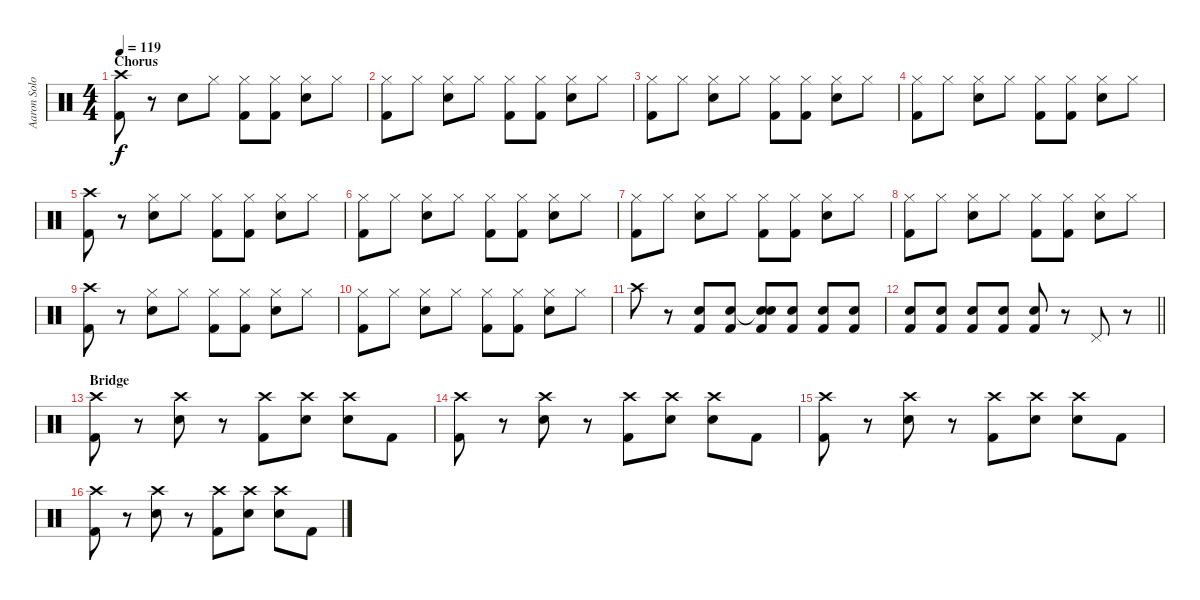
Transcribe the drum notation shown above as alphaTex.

\track ("Aaron Solowoniuk (Drums)" "Aaron Solo") {instrument percussion}
\staff {score}
\articulation defaults
\ts (4 4)
\section ("" "Chorus")
\tempo 119
\clef neutral
\ks c
("Crash high (hit)" "Kick (hit) 2").8{dy f} r.8 "Electric Snare (hit)".8 "Hi-Hat (closed)".8 ("Hi-Hat (closed)" "Kick (hit) 2").8 ("Hi-Hat (closed)" "Kick (hit) 2").8 ("Hi-Hat (closed)" "Electric Snare (hit)").8 "Hi-Hat (closed)".8 |
("Hi-Hat (closed)" "Kick (hit) 2").8 "Hi-Hat (closed)".8 ("Hi-Hat (closed)" "Electric Snare (hit)").8 "Hi-Hat (closed)".8 ("Hi-Hat (closed)" "Kick (hit) 2").8 ("Hi-Hat (closed)" "Kick (hit) 2").8 ("Hi-Hat (closed)" "Electric Snare (hit)").8 "Hi-Hat (closed)".8 |
("Hi-Hat (closed)" "Kick (hit) 2").8 "Hi-Hat (closed)".8 ("Hi-Hat (closed)" "Electric Snare (hit)").8 "Hi-Hat (closed)".8 ("Hi-Hat (closed)" "Kick (hit) 2").8 ("Hi-Hat (closed)" "Kick (hit) 2").8 ("Hi-Hat (closed)" "Electric Snare (hit)").8 "Hi-Hat (closed)".8 |
("Hi-Hat (closed)" "Kick (hit) 2").8 "Hi-Hat (closed)".8 ("Hi-Hat (closed)" "Electric Snare (hit)").8 "Hi-Hat (closed)".8 ("Hi-Hat (closed)" "Kick (hit) 2").8 ("Hi-Hat (closed)" "Kick (hit) 2").8 ("Hi-Hat (closed)" "Electric Snare (hit)").8 "Hi-Hat (closed)".8 |
("Crash high (hit)" "Kick (hit) 2").8 r.8 ("Hi-Hat (closed)" "Electric Snare (hit)").8 "Hi-Hat (closed)".8 ("Hi-Hat (closed)" "Kick (hit) 2").8 ("Hi-Hat (closed)" "Kick (hit) 2").8 ("Hi-Hat (closed)" "Electric Snare (hit)").8 "Hi-Hat (closed)".8 |
("Hi-Hat (closed)" "Kick (hit) 2").8 "Hi-Hat (closed)".8 ("Hi-Hat (closed)" "Electric Snare (hit)").8 "Hi-Hat (closed)".8 ("Hi-Hat (closed)" "Kick (hit) 2").8 ("Hi-Hat (closed)" "Kick (hit) 2").8 ("Hi-Hat (closed)" "Electric Snare (hit)").8 "Hi-Hat (closed)".8 |
("Hi-Hat (closed)" "Kick (hit) 2").8 "Hi-Hat (closed)".8 ("Hi-Hat (closed)" "Electric Snare (hit)").8 "Hi-Hat (closed)".8 ("Hi-Hat (closed)" "Kick (hit) 2").8 ("Hi-Hat (closed)" "Kick (hit) 2").8 ("Hi-Hat (closed)" "Electric Snare (hit)").8 "Hi-Hat (closed)".8 |
("Hi-Hat (closed)" "Kick (hit) 2").8 "Hi-Hat (closed)".8 ("Hi-Hat (closed)" "Electric Snare (hit)").8 "Hi-Hat (closed)".8 ("Hi-Hat (closed)" "Kick (hit) 2").8 ("Hi-Hat (closed)" "Kick (hit) 2").8 ("Hi-Hat (closed)" "Electric Snare (hit)").8 "Hi-Hat (closed)".8 |
("Crash high (hit)" "Kick (hit) 2").8 r.8 ("Hi-Hat (closed)" "Electric Snare (hit)").8 "Hi-Hat (closed)".8 ("Hi-Hat (closed)" "Kick (hit) 2").8 ("Hi-Hat (closed)" "Kick (hit) 2").8 ("Hi-Hat (closed)" "Electric Snare (hit)").8 "Hi-Hat (closed)".8 |
("Hi-Hat (closed)" "Kick (hit) 2").8 "Hi-Hat (closed)".8 ("Hi-Hat (closed)" "Electric Snare (hit)").8 "Hi-Hat (closed)".8 ("Hi-Hat (closed)" "Kick (hit) 2").8 ("Hi-Hat (closed)" "Kick (hit) 2").8 ("Hi-Hat (closed)" "Electric Snare (hit)").8 "Hi-Hat (closed)".8 |
"Crash high (hit)".8 r.8 ("Electric Snare (hit)" "Kick (hit) 2").8{volume 6} ("Electric Snare (hit)" "Kick (hit) 2").8{volume 7} ("Snare (hit)"{t} "Electric Snare (hit)" "Kick (hit) 2").8{volume 8} ("Electric Snare (hit)" "Kick (hit) 2").8{volume 9} ("Electric Snare (hit)" "Kick (hit) 2").8{volume 10} ("Electric Snare (hit)" "Kick (hit) 2").8{volume 10} |
\barLineRight lightlight
("Electric Snare (hit)" "Kick (hit) 2").8{volume 11} ("Electric Snare (hit)" "Kick (hit) 2").8{volume 12} ("Electric Snare (hit)" "Kick (hit) 2").8 ("Electric Snare (hit)" "Kick (hit) 2").8 ("Electric Snare (hit)" "Kick (hit) 2").8 r.8 "Pedal Hi-Hat (hit)".8 r.8 |
\section ("" "Bridge")
("Crash high (hit)" "Kick (hit) 2").8{volume 16} r.8 ("Crash high (hit)" "Electric Snare (hit)").8 r.8 ("Crash high (hit)" "Kick (hit) 2").8 ("Crash high (hit)" "Electric Snare (hit)").8 ("Crash high (hit)" "Electric Snare (hit)").8 "Kick (hit) 2".8 |
("Crash high (hit)" "Kick (hit) 2").8 r.8 ("Crash high (hit)" "Electric Snare (hit)").8 r.8 ("Crash high (hit)" "Kick (hit) 2").8 ("Crash high (hit)" "Electric Snare (hit)").8 ("Crash high (hit)" "Electric Snare (hit)").8 "Kick (hit) 2".8 |
("Crash high (hit)" "Kick (hit) 2").8 r.8 ("Crash high (hit)" "Electric Snare (hit)").8 r.8 ("Crash high (hit)" "Kick (hit) 2").8 ("Crash high (hit)" "Electric Snare (hit)").8 ("Crash high (hit)" "Electric Snare (hit)").8 "Kick (hit) 2".8 |
("Crash high (hit)" "Kick (hit) 2").8 r.8 ("Crash high (hit)" "Electric Snare (hit)").8 r.8 ("Crash high (hit)" "Kick (hit) 2").8 ("Crash high (hit)" "Electric Snare (hit)").8 ("Crash high (hit)" "Electric Snare (hit)").8 "Kick (hit) 2".8
